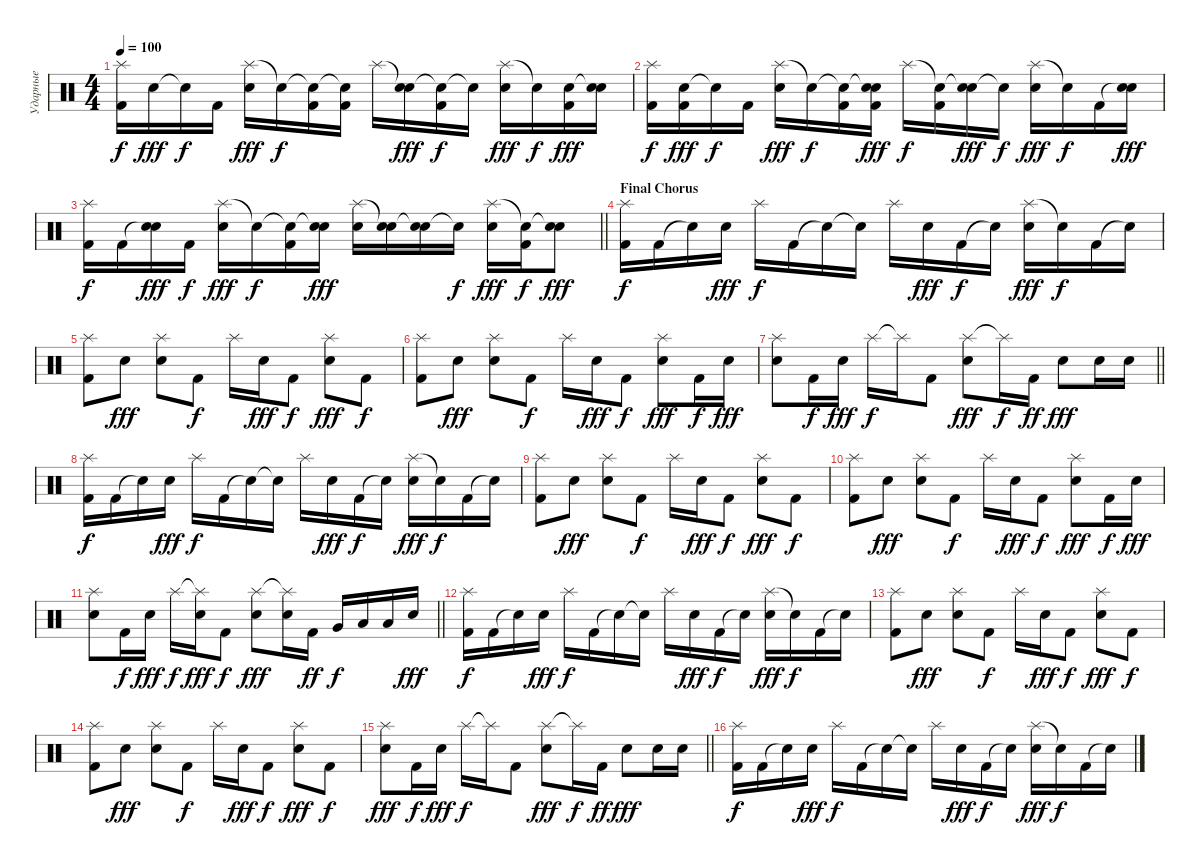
\track ("Ударные" "Ударные") {instrument percussion}
\staff {score}
\articulation defaults
\ts (4 4)
\tempo 100
\clef neutral
\ks c
("Splash (hit)" "Kick (hit) 2").16{dy f} "Electric Snare (hit)".16{dy fff} "Snare (hit)"{t}.16{dy f} "Kick (hit) 2".16 ("Splash (hit)" "Electric Snare (hit)").16{dy fff} "Snare (hit)"{t}.16{dy f} ("Snare (hit)"{t} "Kick (hit) 2").16 ("Snare (hit)"{t} "Kick (hit) 2").16 "Splash (hit)".16 ("Snare (hit)"{t} "Electric Snare (hit)").16{dy fff} ("Snare (hit)"{t} "Kick (hit) 2").16{dy f} "Snare (hit)"{t}.16 ("Splash (hit)" "Electric Snare (hit)").16{dy fff} "Snare (hit)"{t}.16{dy f} ("Electric Snare (hit)" "Kick (hit) 2").16{dy fff} ("Snare (hit)"{t} "Electric Snare (hit)").16 |
("Splash (hit)" "Kick (hit) 2").16{dy f} ("Electric Snare (hit)" "Kick (hit) 2").16{dy fff} "Snare (hit)"{t}.16{dy f} "Kick (hit) 2".16 ("Splash (hit)" "Electric Snare (hit)").16{dy fff} "Snare (hit)"{t}.16{dy f} ("Snare (hit)"{t} "Kick (hit) 2").16 ("Snare (hit)"{t} "Electric Snare (hit)" "Kick (hit) 2").16{dy fff} "Splash (hit)".16{dy f} ("Snare (hit)"{t} "Kick (hit) 2").16 ("Snare (hit)"{t} "Electric Snare (hit)").16{dy fff} "Snare (hit)"{t}.16{dy f} ("Splash (hit)" "Electric Snare (hit)").16{dy fff} "Snare (hit)"{t}.16{dy f} "Kick (hit) 2".16 ("Snare (hit)"{t} "Electric Snare (hit)").16{dy fff} |
\barLineRight lightlight
("Splash (hit)" "Kick (hit) 2").16{dy f} "Kick (hit) 2".16 ("Snare (hit)"{t} "Electric Snare (hit)").16{dy fff} "Kick (hit) 2".16{dy f} ("Splash (hit)" "Electric Snare (hit)").16{dy fff} "Snare (hit)"{t}.16{dy f} ("Snare (hit)"{t} "Kick (hit) 2").16 ("Snare (hit)"{t} "Electric Snare (hit)").16{dy fff} ("Splash (hit)" "Electric Snare (hit)").16 ("Snare (hit)"{t} "Electric Snare (hit)").16 ("Snare (hit)"{t} "Electric Snare (hit)").16 "Snare (hit)"{t}.16{dy f} ("Splash (hit)" "Electric Snare (hit)").16{dy fff} ("Snare (hit)"{t} "Kick (hit) 2").16{dy f} ("Snare (hit)"{t} "Electric Snare (hit)").8{dy fff} |
\section ("" "Final Chorus")
("Splash (hit)" "Kick (hit) 2").16{dy f} "Kick (hit) 2".16 "Snare (hit)"{t}.16 "Electric Snare (hit)".16{dy fff} "Splash (hit)".16{dy f} "Kick (hit) 2".16 "Snare (hit)"{t}.16 "Snare (hit)"{t}.16 "Splash (hit)".16 "Electric Snare (hit)".16{dy fff} "Kick (hit) 2".16{dy f} "Snare (hit)"{t}.16 ("Splash (hit)" "Electric Snare (hit)").16{dy fff} "Snare (hit)"{t}.16{dy f} "Kick (hit) 2".16 "Snare (hit)"{t}.16 |
("Splash (hit)" "Kick (hit) 2").8 "Electric Snare (hit)".8{dy fff} ("Splash (hit)" "Electric Snare (hit)").8 "Kick (hit) 2".8{dy f} "Splash (hit)".16 "Electric Snare (hit)".16{dy fff} "Kick (hit) 2".8{dy f} ("Splash (hit)" "Electric Snare (hit)").8{dy fff} "Kick (hit) 2".8{dy f} |
("Splash (hit)" "Kick (hit) 2").8 "Electric Snare (hit)".8{dy fff} ("Splash (hit)" "Electric Snare (hit)").8 "Kick (hit) 2".8{dy f} "Splash (hit)".16 "Electric Snare (hit)".16{dy fff} "Kick (hit) 2".8{dy f} ("Splash (hit)" "Electric Snare (hit)").8{dy fff} "Kick (hit) 2".16{dy f} "Electric Snare (hit)".16{dy fff} |
\barLineRight lightlight
("Splash (hit)" "Electric Snare (hit)").8 "Kick (hit) 2".16{dy f} "Electric Snare (hit)".16{dy fff} "Splash (hit)".16{dy f} "Splash (hit)"{t}.16 "Kick (hit) 2".8 ("Splash (hit)" "Electric Snare (hit)").8{dy fff} "Splash (hit)"{t}.16{dy f} "Kick (hit) 2".16{dy ff} "Electric Snare (hit)".8{dy fff} "Electric Snare (hit)".16 "Electric Snare (hit)".16 |
("Splash (hit)" "Kick (hit) 2").16{dy f} "Kick (hit) 2".16 "Snare (hit)"{t}.16 "Electric Snare (hit)".16{dy fff} "Splash (hit)".16{dy f} "Kick (hit) 2".16 "Snare (hit)"{t}.16 "Snare (hit)"{t}.16 "Splash (hit)".16 "Electric Snare (hit)".16{dy fff} "Kick (hit) 2".16{dy f} "Snare (hit)"{t}.16 ("Splash (hit)" "Electric Snare (hit)").16{dy fff} "Snare (hit)"{t}.16{dy f} "Kick (hit) 2".16 "Snare (hit)"{t}.16 |
("Splash (hit)" "Kick (hit) 2").8 "Electric Snare (hit)".8{dy fff} ("Splash (hit)" "Electric Snare (hit)").8 "Kick (hit) 2".8{dy f} "Splash (hit)".16 "Electric Snare (hit)".16{dy fff} "Kick (hit) 2".8{dy f} ("Splash (hit)" "Electric Snare (hit)").8{dy fff} "Kick (hit) 2".8{dy f} |
("Splash (hit)" "Kick (hit) 2").8 "Electric Snare (hit)".8{dy fff} ("Splash (hit)" "Electric Snare (hit)").8 "Kick (hit) 2".8{dy f} "Splash (hit)".16 "Electric Snare (hit)".16{dy fff} "Kick (hit) 2".8{dy f} ("Splash (hit)" "Electric Snare (hit)").8{dy fff} "Kick (hit) 2".16{dy f} "Electric Snare (hit)".16{dy fff} |
\barLineRight lightlight
("Splash (hit)" "Electric Snare (hit)").8 "Kick (hit) 2".16{dy f} "Electric Snare (hit)".16{dy fff} "Splash (hit)".16{dy f} ("Splash (hit)"{t} "Electric Snare (hit)").16{dy fff} "Kick (hit) 2".8{dy f} ("Splash (hit)" "Electric Snare (hit)").8{dy fff} ("Splash (hit)"{t} "Electric Snare (hit)").16 "Kick (hit) 2".16{dy ff} "Very Low Tom (hit)".16{dy f} "Low Tom (hit)".16 "Low Tom (hit)".16 "Electric Snare (hit)".16{dy fff} |
("Splash (hit)" "Kick (hit) 2").16{dy f} "Kick (hit) 2".16 "Snare (hit)"{t}.16 "Electric Snare (hit)".16{dy fff} "Splash (hit)".16{dy f} "Kick (hit) 2".16 "Snare (hit)"{t}.16 "Snare (hit)"{t}.16 "Splash (hit)".16 "Electric Snare (hit)".16{dy fff} "Kick (hit) 2".16{dy f} "Snare (hit)"{t}.16 ("Splash (hit)" "Electric Snare (hit)").16{dy fff} "Snare (hit)"{t}.16{dy f} "Kick (hit) 2".16 "Snare (hit)"{t}.16 |
("Splash (hit)" "Kick (hit) 2").8 "Electric Snare (hit)".8{dy fff} ("Splash (hit)" "Electric Snare (hit)").8 "Kick (hit) 2".8{dy f} "Splash (hit)".16 "Electric Snare (hit)".16{dy fff} "Kick (hit) 2".8{dy f} ("Splash (hit)" "Electric Snare (hit)").8{dy fff} "Kick (hit) 2".8{dy f} |
("Splash (hit)" "Kick (hit) 2").8 "Electric Snare (hit)".8{dy fff} ("Splash (hit)" "Electric Snare (hit)").8 "Kick (hit) 2".8{dy f} "Splash (hit)".16 "Electric Snare (hit)".16{dy fff} "Kick (hit) 2".8{dy f} ("Splash (hit)" "Electric Snare (hit)").8{dy fff} "Kick (hit) 2".8{dy f} |
\barLineRight lightlight
("Splash (hit)" "Electric Snare (hit)").8{dy fff} "Kick (hit) 2".16{dy f} "Electric Snare (hit)".16{dy fff} "Splash (hit)".16{dy f} "Splash (hit)"{t}.16 "Kick (hit) 2".8 ("Splash (hit)" "Electric Snare (hit)").8{dy fff} "Splash (hit)"{t}.16{dy f} "Kick (hit) 2".16{dy ff} "Electric Snare (hit)".8{dy fff} "Electric Snare (hit)".16 "Electric Snare (hit)".16 |
("Splash (hit)" "Kick (hit) 2").16{dy f} "Kick (hit) 2".16 "Snare (hit)"{t}.16 "Electric Snare (hit)".16{dy fff} "Splash (hit)".16{dy f} "Kick (hit) 2".16 "Snare (hit)"{t}.16 "Snare (hit)"{t}.16 "Splash (hit)".16 "Electric Snare (hit)".16{dy fff} "Kick (hit) 2".16{dy f} "Snare (hit)"{t}.16 ("Splash (hit)" "Electric Snare (hit)").16{dy fff} "Snare (hit)"{t}.16{dy f} "Kick (hit) 2".16 "Snare (hit)"{t}.16
